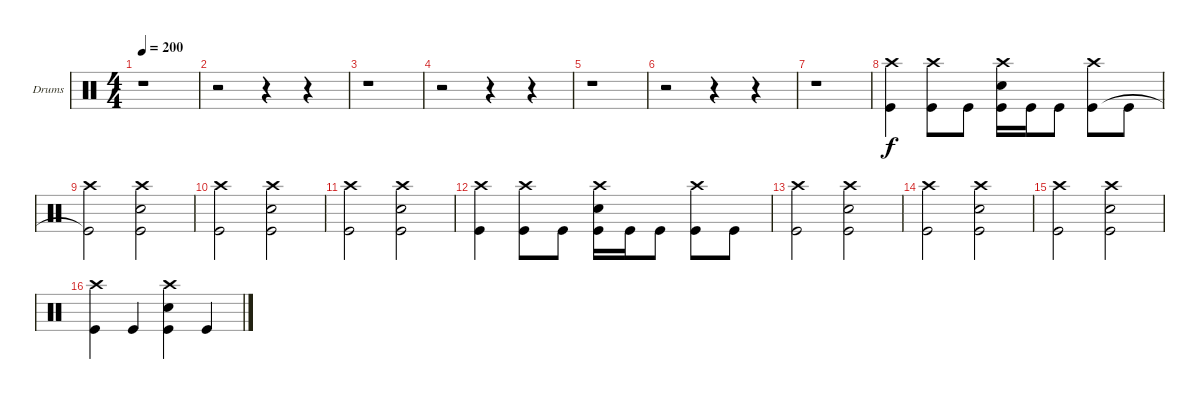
\bracketExtendMode groupsimilarinstruments
\firstSystemTrackNameOrientation horizontal
\otherSystemsTrackNameOrientation horizontal
\track ("Canadien" "Drums") {instrument percussion}
\staff {score}
\articulation defaults
\ts (4 4)
\beaming (8 2 2 2 2)
\tempo 200
\clef neutral
\ks c
r.1{dy f} |
r.2 r.4 r.4 |
r.1 |
r.2 r.4 r.4 |
r.1 |
r.2 r.4 r.4 |
r.1 |
("Crash high (hit)" "Kick (hit)").4 ("Crash high (hit)" "Kick (hit)").8 "Kick (hit)".8 ("Crash high (hit)" "Snare (hit) 2" "Kick (hit)").16 "Kick (hit)".16 "Kick (hit)".8 ("Crash high (hit)" "Kick (hit)").8 "Kick (hit)".8 |
("Crash high (hit)" "Kick (hit)"{t}).2 ("Crash high (hit)" "Snare (hit) 2" "Kick (hit)").2 |
("Crash high (hit)" "Kick (hit)").2 ("Crash high (hit)" "Snare (hit) 2" "Kick (hit)").2 |
("Crash high (hit)" "Kick (hit)").2 ("Crash high (hit)" "Snare (hit) 2" "Kick (hit)").2 |
("Crash high (hit)" "Kick (hit)").4 ("Crash high (hit)" "Kick (hit)").8 "Kick (hit)".8 ("Crash high (hit)" "Snare (hit) 2" "Kick (hit)").16 "Kick (hit)".16 "Kick (hit)".8 ("Crash high (hit)" "Kick (hit)").8 "Kick (hit)".8 |
("Crash high (hit)" "Kick (hit)").2 ("Crash high (hit)" "Snare (hit) 2" "Kick (hit)").2 |
("Crash high (hit)" "Kick (hit)").2 ("Crash high (hit)" "Snare (hit) 2" "Kick (hit)").2 |
("Crash high (hit)" "Kick (hit)").2 ("Crash high (hit)" "Snare (hit) 2" "Kick (hit)").2 |
("Crash high (hit)" "Kick (hit)").4 "Kick (hit)".4 ("Crash high (hit)" "Snare (hit) 2" "Kick (hit)").4 "Kick (hit)".4
